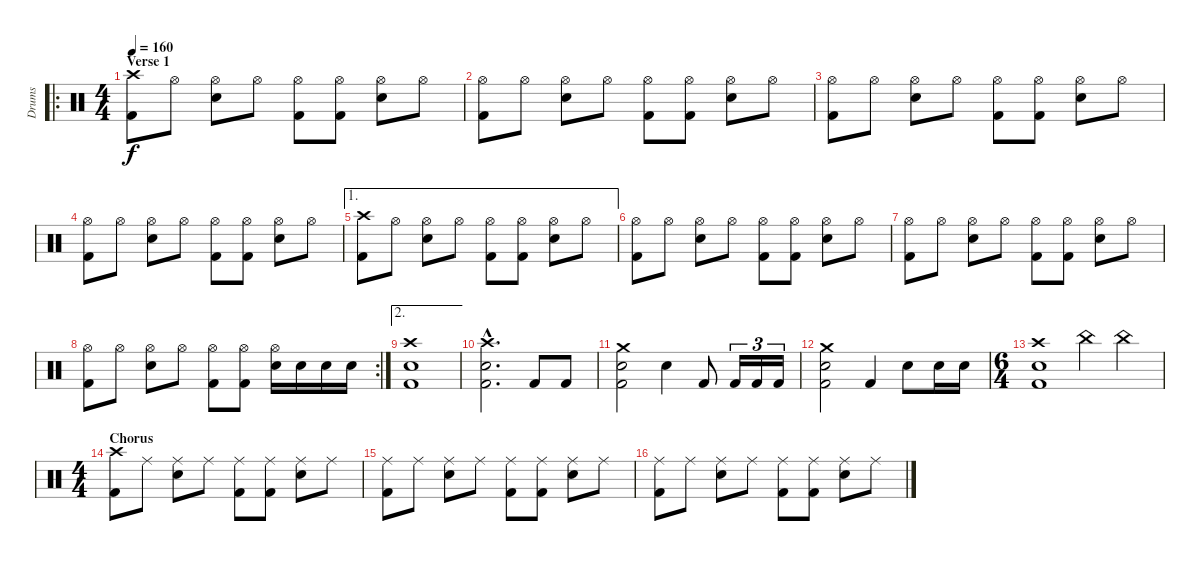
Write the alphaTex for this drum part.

\track ("Drums" "Drums") {instrument percussion}
\staff {score}
\articulation defaults
\ro
\ts (4 4)
\section ("" "Verse 1")
\tempo 160
\clef neutral
\ks c
("Crash high (hit)" "Kick (hit) 2").8{dy f} "Hi-Hat (open)".8 ("Hi-Hat (open)" "Electric Snare (hit)").8 "Hi-Hat (open)".8 ("Hi-Hat (open)" "Kick (hit) 2").8 ("Hi-Hat (open)" "Kick (hit) 2").8 ("Hi-Hat (open)" "Electric Snare (hit)").8 "Hi-Hat (open)".8 |
("Hi-Hat (open)" "Kick (hit) 2").8 "Hi-Hat (open)".8 ("Hi-Hat (open)" "Electric Snare (hit)").8 "Hi-Hat (open)".8 ("Hi-Hat (open)" "Kick (hit) 2").8 ("Hi-Hat (open)" "Kick (hit) 2").8 ("Hi-Hat (open)" "Electric Snare (hit)").8 "Hi-Hat (open)".8 |
("Hi-Hat (open)" "Kick (hit) 2").8 "Hi-Hat (open)".8 ("Hi-Hat (open)" "Electric Snare (hit)").8 "Hi-Hat (open)".8 ("Hi-Hat (open)" "Kick (hit) 2").8 ("Hi-Hat (open)" "Kick (hit) 2").8 ("Hi-Hat (open)" "Electric Snare (hit)").8 "Hi-Hat (open)".8 |
("Hi-Hat (open)" "Kick (hit) 2").8 "Hi-Hat (open)".8 ("Hi-Hat (open)" "Electric Snare (hit)").8 "Hi-Hat (open)".8 ("Hi-Hat (open)" "Kick (hit) 2").8 ("Hi-Hat (open)" "Kick (hit) 2").8 ("Hi-Hat (open)" "Electric Snare (hit)").8 "Hi-Hat (open)".8 |
\ae 1
("Crash high (hit)" "Kick (hit) 2").8 "Hi-Hat (open)".8 ("Hi-Hat (open)" "Electric Snare (hit)").8 "Hi-Hat (open)".8 ("Hi-Hat (open)" "Kick (hit) 2").8 ("Hi-Hat (open)" "Kick (hit) 2").8 ("Hi-Hat (open)" "Electric Snare (hit)").8 "Hi-Hat (open)".8 |
("Hi-Hat (open)" "Kick (hit) 2").8 "Hi-Hat (open)".8 ("Hi-Hat (open)" "Electric Snare (hit)").8 "Hi-Hat (open)".8 ("Hi-Hat (open)" "Kick (hit) 2").8 ("Hi-Hat (open)" "Kick (hit) 2").8 ("Hi-Hat (open)" "Electric Snare (hit)").8 "Hi-Hat (open)".8 |
("Hi-Hat (open)" "Kick (hit) 2").8 "Hi-Hat (open)".8 ("Hi-Hat (open)" "Electric Snare (hit)").8 "Hi-Hat (open)".8 ("Hi-Hat (open)" "Kick (hit) 2").8 ("Hi-Hat (open)" "Kick (hit) 2").8 ("Hi-Hat (open)" "Electric Snare (hit)").8 "Hi-Hat (open)".8 |
\rc 2
("Hi-Hat (open)" "Kick (hit) 2").8 "Hi-Hat (open)".8 ("Hi-Hat (open)" "Electric Snare (hit)").8 "Hi-Hat (open)".8 ("Hi-Hat (open)" "Kick (hit) 2").8 ("Hi-Hat (open)" "Kick (hit) 2").8 ("Hi-Hat (open)" "Electric Snare (hit)").16 "Electric Snare (hit)".16 "Electric Snare (hit)".16 "Electric Snare (hit)".16 |
\ae 2
("Crash high (hit)" "Kick (hit) 2" "Electric Snare (hit)").1 |
("Crash high (hit)"{hac} "Kick (hit) 2"{hac} "Electric Snare (hit)"{hac}).2{d} "Kick (hit) 2".8 "Kick (hit) 2".8 |
("Crash medium (hit)" "Kick (hit) 2" "Electric Snare (hit)").2 "Electric Snare (hit)".4 "Kick (hit) 2".8 "Kick (hit) 2".16{tu (3 2)} "Kick (hit) 2".16{tu (3 2)} "Kick (hit) 2".16{tu (3 2)} |
("Crash medium (hit)" "Kick (hit) 2" "Electric Snare (hit)").2 "Kick (hit) 2".4 "Electric Snare (hit)".8 "Electric Snare (hit)".16 "Electric Snare (hit)".16 |
\ts (6 4)
("Crash high (hit)" "Kick (hit) 2" "Electric Snare (hit)").1 "China (hit)".4 "China (hit)".4 |
\ts (4 4)
\section ("" "Chorus")
("Crash high (hit)" "Kick (hit) 2").8 "Ride (middle)".8 ("Ride (middle)" "Electric Snare (hit)").8 "Ride (middle)".8 ("Ride (middle)" "Kick (hit) 2").8 ("Ride (middle)" "Kick (hit) 2").8 ("Ride (middle)" "Electric Snare (hit)").8 "Ride (middle)".8 |
("Ride (middle)" "Kick (hit) 2").8 "Ride (middle)".8 ("Ride (middle)" "Electric Snare (hit)").8 "Ride (middle)".8 ("Ride (middle)" "Kick (hit) 2").8 ("Ride (middle)" "Kick (hit) 2").8 ("Ride (middle)" "Electric Snare (hit)").8 "Ride (middle)".8 |
("Ride (middle)" "Kick (hit) 2").8 "Ride (middle)".8 ("Ride (middle)" "Electric Snare (hit)").8 "Ride (middle)".8 ("Ride (middle)" "Kick (hit) 2").8 ("Ride (middle)" "Kick (hit) 2").8 ("Ride (middle)" "Electric Snare (hit)").8 "Ride (middle)".8
